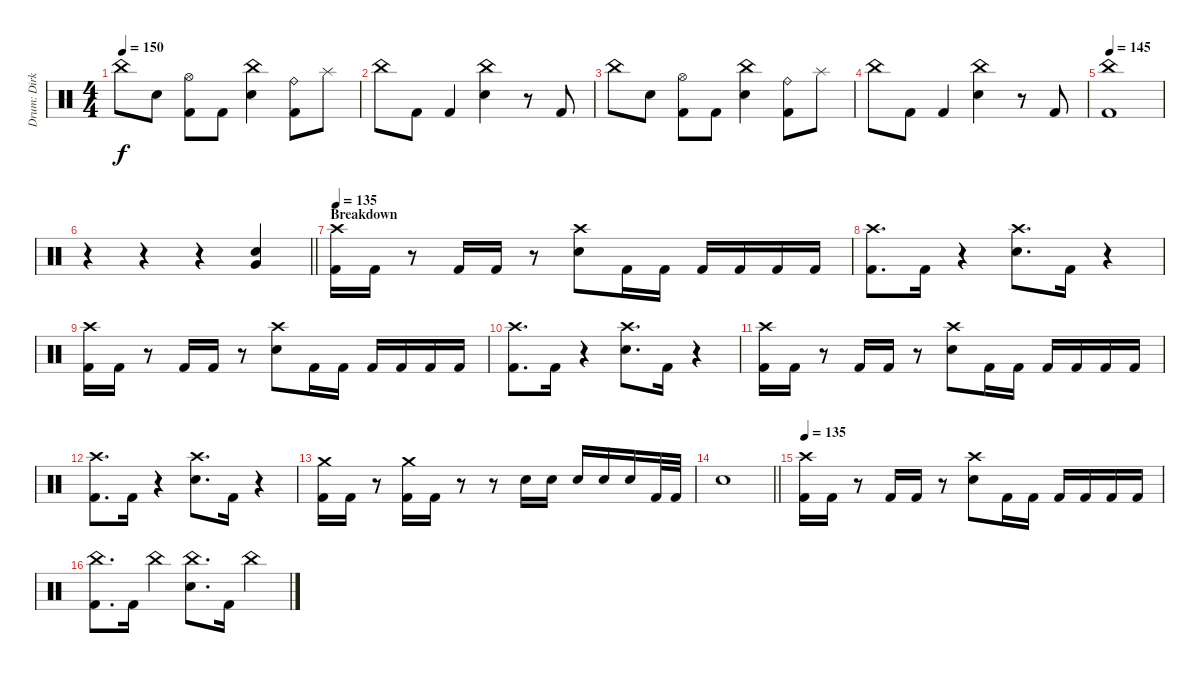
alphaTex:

\track ("Drum: Dirk" "Drum: Dirk") {instrument percussion}
\staff {score}
\articulation defaults
\ts (4 4)
\tempo 150
\clef neutral
\ks c "China (hit)".8{dy f} "Electric Snare (hit)".8
("Hi-Hat (open)" "Kick (hit) 2").8 "Kick (hit) 2".8 ("China (hit)" "Electric Snare (hit)").4 ("Ride (bell)" "Kick (hit) 2").8 "Splash (hit)".8 |
"China (hit)".8 "Kick (hit) 2".8 "Kick (hit) 2".4 ("China (hit)" "Electric Snare (hit)").4 r.8 "Kick (hit) 2".8 |
"China (hit)".8 "Electric Snare (hit)".8 ("Hi-Hat (open)" "Kick (hit) 2").8 "Kick (hit) 2".8 ("China (hit)" "Electric Snare (hit)").4 ("Ride (bell)" "Kick (hit) 2").8 "Splash (hit)".8 |
"China (hit)".8 "Kick (hit) 2".8 "Kick (hit) 2".4 ("China (hit)" "Electric Snare (hit)").4 r.8 "Kick (hit) 2".8 |
\tempo 145
("China (hit)" "Kick (hit) 2").1 |
\barLineRight lightlight
r.4 r.4 r.4 ("Very Low Tom (hit)" "Electric Snare (hit)").4 |
\section ("" "Breakdown")
\tempo 135
("Crash high (hit)" "Kick (hit) 2").16 "Kick (hit) 2".16 r.8 "Kick (hit) 2".16 "Kick (hit) 2".16 r.8 ("Crash high (hit)" "Electric Snare (hit)").8 "Kick (hit) 2".16 "Kick (hit) 2".16 "Kick (hit) 2".16 "Kick (hit) 2".16 "Kick (hit) 2".16 "Kick (hit) 2".16 |
("Crash high (hit)" "Kick (hit) 2").8{d} "Kick (hit) 2".16 r.4 ("Crash high (hit)" "Electric Snare (hit)").8{d} "Kick (hit) 2".16 r.4 |
("Crash high (hit)" "Kick (hit) 2").16 "Kick (hit) 2".16 r.8 "Kick (hit) 2".16 "Kick (hit) 2".16 r.8 ("Crash high (hit)" "Electric Snare (hit)").8 "Kick (hit) 2".16 "Kick (hit) 2".16 "Kick (hit) 2".16 "Kick (hit) 2".16 "Kick (hit) 2".16 "Kick (hit) 2".16 |
("Crash high (hit)" "Kick (hit) 2").8{d} "Kick (hit) 2".16 r.4 ("Crash high (hit)" "Electric Snare (hit)").8{d} "Kick (hit) 2".16 r.4 |
("Crash high (hit)" "Kick (hit) 2").16 "Kick (hit) 2".16 r.8 "Kick (hit) 2".16 "Kick (hit) 2".16 r.8 ("Crash high (hit)" "Electric Snare (hit)").8 "Kick (hit) 2".16 "Kick (hit) 2".16 "Kick (hit) 2".16 "Kick (hit) 2".16 "Kick (hit) 2".16 "Kick (hit) 2".16 |
("Crash high (hit)" "Kick (hit) 2").8{d} "Kick (hit) 2".16 r.4 ("Crash high (hit)" "Electric Snare (hit)").8{d} "Kick (hit) 2".16 r.4 |
("Crash medium (hit)" "Kick (hit) 2").16 "Kick (hit) 2".16 r.8{volume 0} ("Crash medium (hit)" "Kick (hit) 2").16{volume 12} "Kick (hit) 2".16 r.8{volume 0} r.8 "Electric Snare (hit)".16{volume 12} "Electric Snare (hit)".16 "Electric Snare (hit)".16 "Electric Snare (hit)".16 "Electric Snare (hit)".16 "Kick (hit) 2".32 "Kick (hit) 2".32 |
\barLineRight lightlight "Electric Snare (hit)".1
|
\section ("" "")
\tempo 135
("Crash high (hit)" "Kick (hit) 2").16 "Kick (hit) 2".16 r.8 "Kick (hit) 2".16 "Kick (hit) 2".16 r.8 ("Crash high (hit)" "Electric Snare (hit)").8 "Kick (hit) 2".16 "Kick (hit) 2".16 "Kick (hit) 2".16 "Kick (hit) 2".16 "Kick (hit) 2".16 "Kick (hit) 2".16 |
("China (hit)" "Kick (hit) 2").8{d} "Kick (hit) 2".16 "China (hit)".4 ("China (hit)" "Electric Snare (hit)").8{d} "Kick (hit) 2".16 "China (hit)".4
